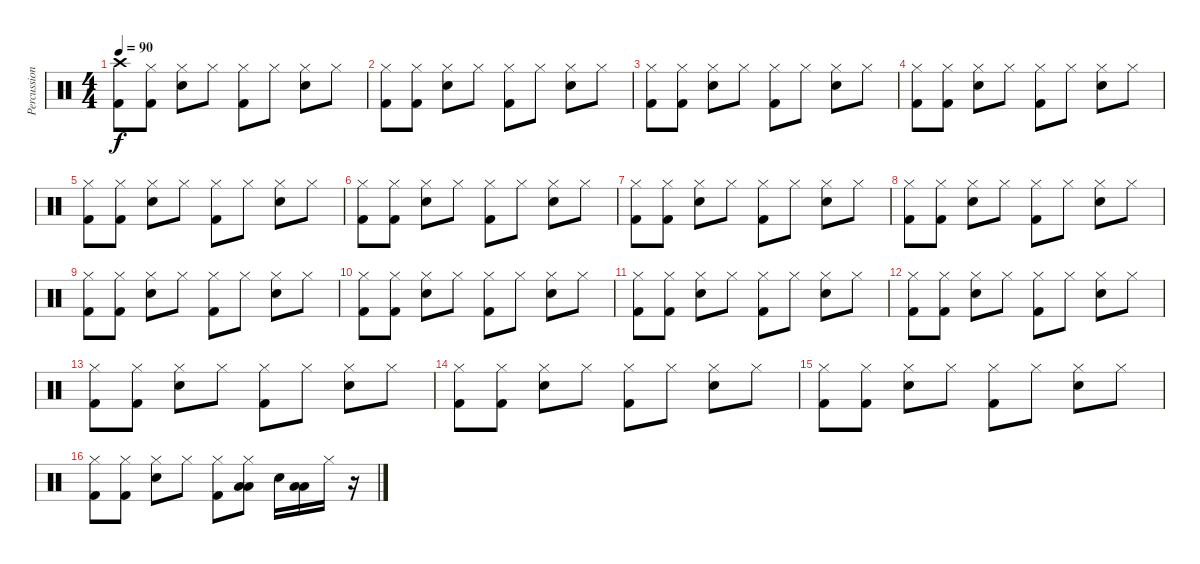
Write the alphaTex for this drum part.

\track ("Percussion" "Percussion") {instrument percussion}
\staff {score}
\articulation defaults
\ts (4 4)
\tempo 90
\clef neutral
\ks c
("Crash high (hit)" "Kick (hit) 2").8{dy f} ("Hi-Hat (closed)" "Kick (hit) 2").8 ("Hi-Hat (closed)" "Snare (hit) 2").8 "Hi-Hat (closed)".8 ("Hi-Hat (closed)" "Kick (hit) 2").8 "Hi-Hat (closed)".8 ("Hi-Hat (closed)" "Snare (hit) 2").8 "Hi-Hat (closed)".8 |
("Hi-Hat (closed)" "Kick (hit) 2").8 ("Hi-Hat (closed)" "Kick (hit) 2").8 ("Hi-Hat (closed)" "Snare (hit) 2").8 "Hi-Hat (closed)".8 ("Hi-Hat (closed)" "Kick (hit) 2").8 "Hi-Hat (closed)".8 ("Hi-Hat (closed)" "Snare (hit) 2").8 "Hi-Hat (closed)".8 |
("Hi-Hat (closed)" "Kick (hit) 2").8 ("Hi-Hat (closed)" "Kick (hit) 2").8 ("Hi-Hat (closed)" "Snare (hit) 2").8 "Hi-Hat (closed)".8 ("Hi-Hat (closed)" "Kick (hit) 2").8 "Hi-Hat (closed)".8 ("Hi-Hat (closed)" "Snare (hit) 2").8 "Hi-Hat (closed)".8 |
("Hi-Hat (closed)" "Kick (hit) 2").8 ("Hi-Hat (closed)" "Kick (hit) 2").8 ("Hi-Hat (closed)" "Snare (hit) 2").8 "Hi-Hat (closed)".8 ("Hi-Hat (closed)" "Kick (hit) 2").8 "Hi-Hat (closed)".8 ("Hi-Hat (closed)" "Snare (hit) 2").8 "Hi-Hat (closed)".8 |
("Hi-Hat (closed)" "Kick (hit) 2").8 ("Hi-Hat (closed)" "Kick (hit) 2").8 ("Hi-Hat (closed)" "Snare (hit) 2").8 "Hi-Hat (closed)".8 ("Hi-Hat (closed)" "Kick (hit) 2").8 "Hi-Hat (closed)".8 ("Hi-Hat (closed)" "Snare (hit) 2").8 "Hi-Hat (closed)".8 |
("Hi-Hat (closed)" "Kick (hit) 2").8 ("Hi-Hat (closed)" "Kick (hit) 2").8 ("Hi-Hat (closed)" "Snare (hit) 2").8 "Hi-Hat (closed)".8 ("Hi-Hat (closed)" "Kick (hit) 2").8 "Hi-Hat (closed)".8 ("Hi-Hat (closed)" "Snare (hit) 2").8 "Hi-Hat (closed)".8 |
("Hi-Hat (closed)" "Kick (hit) 2").8 ("Hi-Hat (closed)" "Kick (hit) 2").8 ("Hi-Hat (closed)" "Snare (hit) 2").8 "Hi-Hat (closed)".8 ("Hi-Hat (closed)" "Kick (hit) 2").8 "Hi-Hat (closed)".8 ("Hi-Hat (closed)" "Snare (hit) 2").8 "Hi-Hat (closed)".8 |
("Hi-Hat (closed)" "Kick (hit) 2").8 ("Hi-Hat (closed)" "Kick (hit) 2").8 ("Hi-Hat (closed)" "Snare (hit) 2").8 "Hi-Hat (closed)".8 ("Hi-Hat (closed)" "Kick (hit) 2").8 "Hi-Hat (closed)".8 ("Hi-Hat (closed)" "Snare (hit) 2").8 "Hi-Hat (closed)".8 |
("Hi-Hat (closed)" "Kick (hit) 2").8 ("Hi-Hat (closed)" "Kick (hit) 2").8 ("Hi-Hat (closed)" "Snare (hit) 2").8 "Hi-Hat (closed)".8 ("Hi-Hat (closed)" "Kick (hit) 2").8 "Hi-Hat (closed)".8 ("Hi-Hat (closed)" "Snare (hit) 2").8 "Hi-Hat (closed)".8 |
("Hi-Hat (closed)" "Kick (hit) 2").8 ("Hi-Hat (closed)" "Kick (hit) 2").8 ("Hi-Hat (closed)" "Snare (hit) 2").8 "Hi-Hat (closed)".8 ("Hi-Hat (closed)" "Kick (hit) 2").8 "Hi-Hat (closed)".8 ("Hi-Hat (closed)" "Snare (hit) 2").8 "Hi-Hat (closed)".8 |
("Hi-Hat (closed)" "Kick (hit) 2").8 ("Hi-Hat (closed)" "Kick (hit) 2").8 ("Hi-Hat (closed)" "Snare (hit) 2").8 "Hi-Hat (closed)".8 ("Hi-Hat (closed)" "Kick (hit) 2").8 "Hi-Hat (closed)".8 ("Hi-Hat (closed)" "Snare (hit) 2").8 "Hi-Hat (closed)".8 |
("Hi-Hat (closed)" "Kick (hit) 2").8 ("Hi-Hat (closed)" "Kick (hit) 2").8 ("Hi-Hat (closed)" "Snare (hit) 2").8 "Hi-Hat (closed)".8 ("Hi-Hat (closed)" "Kick (hit) 2").8 "Hi-Hat (closed)".8 ("Hi-Hat (closed)" "Snare (hit) 2").8 "Hi-Hat (closed)".8 |
("Hi-Hat (closed)" "Kick (hit) 2").8 ("Hi-Hat (closed)" "Kick (hit) 2").8 ("Hi-Hat (closed)" "Snare (hit) 2").8 "Hi-Hat (closed)".8 ("Hi-Hat (closed)" "Kick (hit) 2").8 "Hi-Hat (closed)".8 ("Hi-Hat (closed)" "Snare (hit) 2").8 "Hi-Hat (closed)".8 |
("Hi-Hat (closed)" "Kick (hit) 2").8 ("Hi-Hat (closed)" "Kick (hit) 2").8 ("Hi-Hat (closed)" "Snare (hit) 2").8 "Hi-Hat (closed)".8 ("Hi-Hat (closed)" "Kick (hit) 2").8 "Hi-Hat (closed)".8 ("Hi-Hat (closed)" "Snare (hit) 2").8 "Hi-Hat (closed)".8 |
("Hi-Hat (closed)" "Kick (hit) 2").8 ("Hi-Hat (closed)" "Kick (hit) 2").8 ("Hi-Hat (closed)" "Snare (hit) 2").8 "Hi-Hat (closed)".8 ("Hi-Hat (closed)" "Kick (hit) 2").8 "Hi-Hat (closed)".8 ("Hi-Hat (closed)" "Snare (hit) 2").8 "Hi-Hat (closed)".8 |
("Hi-Hat (closed)" "Kick (hit) 2").8 ("Hi-Hat (closed)" "Kick (hit) 2").8 ("Hi-Hat (closed)" "Snare (hit) 2").8 "Hi-Hat (closed)".8 ("Hi-Hat (closed)" "Kick (hit) 2").8 ("Hi-Hat (closed)" "Low Tom (hit)" "Low Tom (hit)").8 "Snare (hit) 2".16 ("Low Floor Tom (hit)" "Low Floor Tom (hit)").16 "Hi-Hat (closed)".16 r.16
